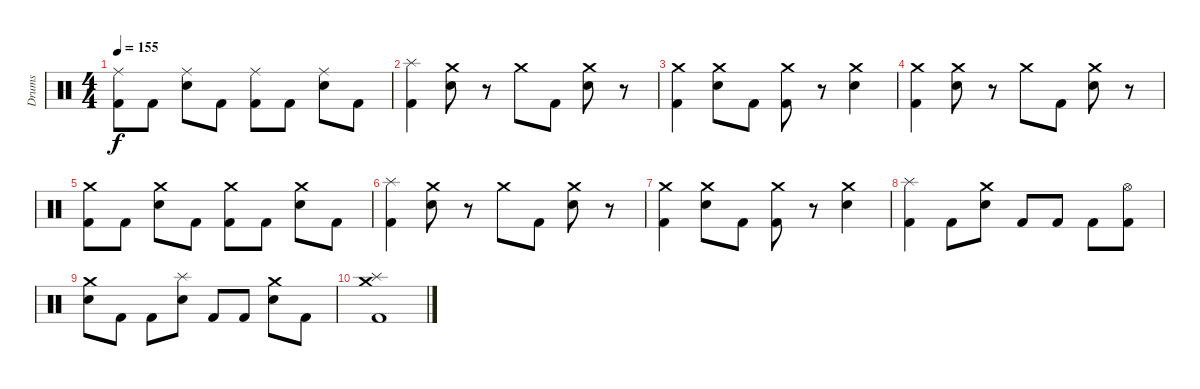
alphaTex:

\track ("Drums" "Drums") {instrument percussion}
\staff {score}
\articulation defaults
\ts (4 4)
\tempo 155
\clef neutral
\ks c
("Ride (middle)" "Kick (hit) 2").8{dy f} "Kick (hit) 2".8 ("Snare (hit) 2" "Ride (middle)").8 "Kick (hit) 2".8 ("Ride (middle)" "Kick (hit) 2").8 "Kick (hit) 2".8 ("Snare (hit) 2" "Ride (middle)").8 "Kick (hit) 2".8 |
("Splash (hit)" "Kick (hit) 2").4 ("Snare (hit) 2" "Crash medium (hit)").8 r.8 "Crash medium (hit)".8 "Kick (hit) 2".8 ("Snare (hit) 2" "Crash medium (hit)").8 r.8 |
("Crash medium (hit)" "Kick (hit) 2").4 ("Snare (hit) 2" "Crash medium (hit)").8 "Kick (hit) 2".8 ("Crash medium (hit)" "Kick (hit) 2").8 r.8 ("Snare (hit) 2" "Crash medium (hit)").4 |
("Crash medium (hit)" "Kick (hit) 2").4 ("Snare (hit) 2" "Crash medium (hit)").8 r.8 "Crash medium (hit)".8 "Kick (hit) 2".8 ("Snare (hit) 2" "Crash medium (hit)").8 r.8 |
("Crash medium (hit)" "Kick (hit) 2").8 "Kick (hit) 2".8 ("Snare (hit) 2" "Crash medium (hit)").8 "Kick (hit) 2".8 ("Crash medium (hit)" "Kick (hit) 2").8 "Kick (hit) 2".8 ("Snare (hit) 2" "Crash medium (hit)").8 "Kick (hit) 2".8 |
("Splash (hit)" "Kick (hit) 2").4 ("Snare (hit) 2" "Crash medium (hit)").8 r.8 "Crash medium (hit)".8 "Kick (hit) 2".8 ("Snare (hit) 2" "Crash medium (hit)").8 r.8 |
("Crash medium (hit)" "Kick (hit) 2").4 ("Snare (hit) 2" "Crash medium (hit)").8 "Kick (hit) 2".8 ("Crash medium (hit)" "Kick (hit) 2").8 r.8 ("Snare (hit) 2" "Crash medium (hit)").4 |
("Splash (hit)" "Kick (hit) 2").4 "Kick (hit) 2".8 ("Snare (hit) 2" "Crash medium (hit)").8 "Kick (hit) 2".8 "Kick (hit) 2".8 "Kick (hit) 2".8 ("Hi-Hat (open)" "Kick (hit) 2").8 |
("Snare (hit) 2" "Crash medium (hit)").8 "Kick (hit) 2".8 "Kick (hit) 2".8 ("Snare (hit) 2" "Splash (hit)").8 "Kick (hit) 2".8 "Kick (hit) 2".8 ("Snare (hit) 2" "Crash medium (hit)").8 "Kick (hit) 2".8 |
("Splash (hit)" "Crash medium (hit)" "Kick (hit) 2").1
